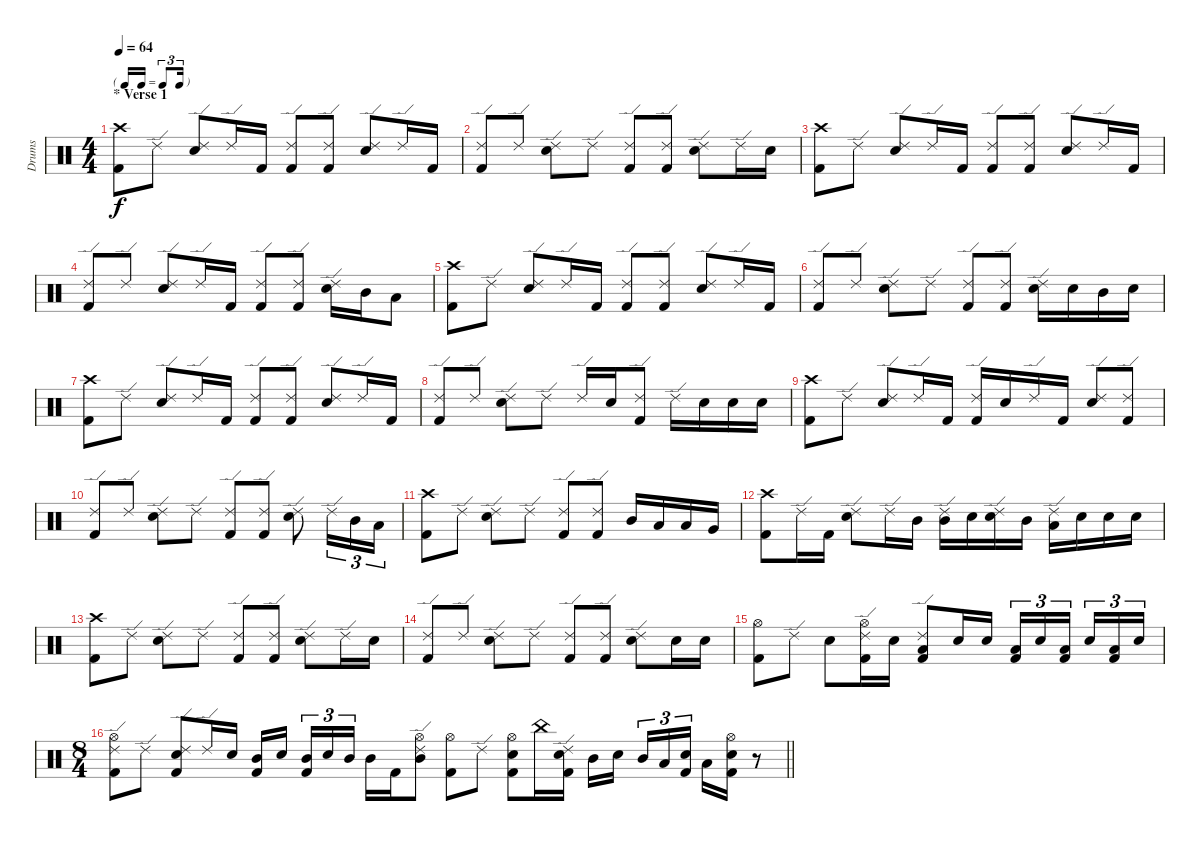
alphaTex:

\track ("Drums" "Drums") {instrument percussion}
\staff {score}
\articulation defaults
\ts (4 4)
\tf triplet16th
\section ("" "* Verse 1")
\tempo 64
\clef neutral
\ks c
("Crash high (hit)" "Kick (hit) 2").8{dy f} "Ride (edge) 2".8 ("Ride (edge) 2" "Electric Snare (hit)").8 "Ride (edge) 2".16 "Kick (hit) 2".16 ("Ride (edge) 2" "Kick (hit) 2").8 ("Ride (edge) 2" "Kick (hit) 2").8 ("Ride (edge) 2" "Electric Snare (hit)").8 "Ride (edge) 2".16 "Kick (hit) 2".16 |
("Ride (edge) 2" "Kick (hit) 2").8 "Ride (edge) 2".8 ("Ride (edge) 2" "Electric Snare (hit)").8 "Ride (edge) 2".8 ("Ride (edge) 2" "Kick (hit) 2").8 ("Ride (edge) 2" "Kick (hit) 2").8 ("Ride (edge) 2" "Electric Snare (hit)").8 "Ride (edge) 2".16 "Electric Snare (hit)".16 |
("Crash high (hit)" "Kick (hit) 2").8 "Ride (edge) 2".8 ("Ride (edge) 2" "Electric Snare (hit)").8 "Ride (edge) 2".16 "Kick (hit) 2".16 ("Ride (edge) 2" "Kick (hit) 2").8 ("Ride (edge) 2" "Kick (hit) 2").8 ("Ride (edge) 2" "Electric Snare (hit)").8 "Ride (edge) 2".16 "Kick (hit) 2".16 |
("Ride (edge) 2" "Kick (hit) 2").8 "Ride (edge) 2".8 ("Ride (edge) 2" "Electric Snare (hit)").8 "Ride (edge) 2".16 "Kick (hit) 2".16 ("Ride (edge) 2" "Kick (hit) 2").8 ("Ride (edge) 2" "Kick (hit) 2").8 ("Ride (edge) 2" "Electric Snare (hit)").16 "Mid Tom (hit)".16 "Low Tom (hit)".8 |
("Crash high (hit)" "Kick (hit) 2").8 "Ride (edge) 2".8 ("Ride (edge) 2" "Electric Snare (hit)").8 "Ride (edge) 2".16 "Kick (hit) 2".16 ("Ride (edge) 2" "Kick (hit) 2").8 ("Ride (edge) 2" "Kick (hit) 2").8 ("Ride (edge) 2" "Electric Snare (hit)").8 "Ride (edge) 2".16 "Kick (hit) 2".16 |
("Ride (edge) 2" "Kick (hit) 2").8 "Ride (edge) 2".8 ("Ride (edge) 2" "Electric Snare (hit)").8 "Ride (edge) 2".8 ("Ride (edge) 2" "Kick (hit) 2").8 ("Ride (edge) 2" "Kick (hit) 2").8 ("Ride (edge) 2" "Electric Snare (hit)").16 "Electric Snare (hit)".16 "Mid Tom (hit)".16 "Electric Snare (hit)".16 |
("Crash high (hit)" "Kick (hit) 2").8 "Ride (edge) 2".8 ("Ride (edge) 2" "Electric Snare (hit)").8 "Ride (edge) 2".16 "Kick (hit) 2".16 ("Ride (edge) 2" "Kick (hit) 2").8 ("Ride (edge) 2" "Kick (hit) 2").8 ("Ride (edge) 2" "Electric Snare (hit)").8 "Ride (edge) 2".16 "Kick (hit) 2".16 |
("Ride (edge) 2" "Kick (hit) 2").8 "Ride (edge) 2".8 ("Ride (edge) 2" "Electric Snare (hit)").8 "Ride (edge) 2".8 "Ride (edge) 2".16 "Electric Snare (hit)".16 ("Ride (edge) 2" "Kick (hit) 2").8 "Ride (edge) 2".16 "Electric Snare (hit)".16 "Electric Snare (hit)".16 "Electric Snare (hit)".16 |
("Crash high (hit)" "Kick (hit) 2").8 "Ride (edge) 2".8 ("Ride (edge) 2" "Electric Snare (hit)").8 "Ride (edge) 2".16 "Kick (hit) 2".16 ("Ride (edge) 2" "Kick (hit) 2").16 "Electric Snare (hit)".16 "Ride (edge) 2".16 "Kick (hit) 2".16 ("Ride (edge) 2" "Electric Snare (hit)").8 ("Ride (edge) 2" "Kick (hit) 2").8 |
("Ride (edge) 2" "Kick (hit) 2").8 "Ride (edge) 2".8 ("Ride (edge) 2" "Electric Snare (hit)").8 "Ride (edge) 2".8 ("Ride (edge) 2" "Kick (hit) 2").8 ("Ride (edge) 2" "Kick (hit) 2").8 ("Ride (edge) 2" "Electric Snare (hit)").8 "Ride (edge) 2".16{tu (3 2)} "Mid Tom (hit)".16{tu (3 2)} "Low Tom (hit)".16{tu (3 2)} |
("Crash high (hit)" "Kick (hit) 2").8 "Ride (edge) 2".8 ("Ride (edge) 2" "Electric Snare (hit)").8 "Ride (edge) 2".8 ("Ride (edge) 2" "Kick (hit) 2").8 ("Ride (edge) 2" "Kick (hit) 2").8 "Mid Tom (hit)".16 "Low Tom (hit)".16 "Low Tom (hit)".16 "Very Low Tom (hit)".16 |
("Crash high (hit)" "Kick (hit) 2").8 "Ride (edge) 2".16 "Kick (hit) 2".16 ("Ride (edge) 2" "Electric Snare (hit)").8 "Ride (edge) 2".16 "Mid Tom (hit)".16 ("Ride (edge) 2" "Mid Tom (hit)").16 "Electric Snare (hit)".16 ("Ride (edge) 2" "Electric Snare (hit)").16 "Mid Tom (hit)".16 ("Ride (edge) 2" "Low Tom (hit)").16 "Electric Snare (hit)".16 "Electric Snare (hit)".16 "Electric Snare (hit)".16 |
("Crash high (hit)" "Kick (hit) 2").8 "Ride (edge) 2".8 ("Ride (edge) 2" "Electric Snare (hit)").8 "Ride (edge) 2".8 ("Ride (edge) 2" "Kick (hit) 2").8 ("Ride (edge) 2" "Kick (hit) 2").8 ("Ride (edge) 2" "Electric Snare (hit)").8 "Ride (edge) 2".16 "Electric Snare (hit)".16 |
("Ride (edge) 2" "Kick (hit) 2").8 "Ride (edge) 2".8 ("Ride (edge) 2" "Electric Snare (hit)").8 "Ride (edge) 2".8 ("Ride (edge) 2" "Kick (hit) 2").8 ("Ride (edge) 2" "Kick (hit) 2").8 ("Ride (edge) 2" "Electric Snare (hit)").8 "Electric Snare (hit)".16 "Electric Snare (hit)".16 |
("Hi-Hat (open)" "Kick (hit) 2").8 "Ride (edge) 2".8 "Electric Snare (hit)".8 ("Ride (edge) 2" "Hi-Hat (open)" "Kick (hit) 2").16 "Electric Snare (hit)".16 ("Ride (edge) 2" "Low Tom (hit)" "Kick (hit) 2").8 "Electric Snare (hit)".16 "Electric Snare (hit)".16 ("Low Tom (hit)" "Kick (hit) 2").16{tu (3 2)} "Electric Snare (hit)".16{tu (3 2)} ("Low Tom (hit)" "Kick (hit) 2").16{tu (3 2) beam splitsecondary} "Electric Snare (hit)".16{tu (3 2)} ("Low Tom (hit)" "Kick (hit) 2").16{tu (3 2)} "Electric Snare (hit)".16{tu (3 2)} |
\ts (8 4)
\barLineRight lightlight
("Ride (edge) 2" "Hi-Hat (open)" "Kick (hit) 2").8 "Ride (edge) 2".8 ("Ride (edge) 2" "Electric Snare (hit)" "Kick (hit) 2").8 "Ride (edge) 2".16 "Electric Snare (hit)".16 ("Mid Tom (hit)" "Kick (hit) 2").16 "Electric Snare (hit)".16{beam splitsecondary} ("Mid Tom (hit)" "Kick (hit) 2").16{tu (3 2)} "Electric Snare (hit)".16{tu (3 2)} "Mid Tom (hit)".16{tu (3 2)} "Mid Tom (hit)".16 "Kick (hit) 2".16 ("Ride (edge) 2" "Hi-Hat (open)" "Mid Tom (hit)").8 ("Hi-Hat (open)" "Kick (hit) 2").8 "Ride (edge) 2".8 ("Hi-Hat (open)" "Electric Snare (hit)" "Kick (hit) 2").8 "China (hit)".16 ("Ride (edge) 2" "Electric Snare (hit)" "Kick (hit) 2").16 "Mid Tom (hit)".16 "Electric Snare (hit)".16{beam splitsecondary} "Mid Tom (hit)".16{tu (3 2)} "Low Tom (hit)".16{tu (3 2)} ("Electric Snare (hit)" "Kick (hit) 2").16{tu (3 2)} "Low Tom (hit)".16 ("Hi-Hat (open)" "Electric Snare (hit)" "Kick (hit) 2").16 r.8
